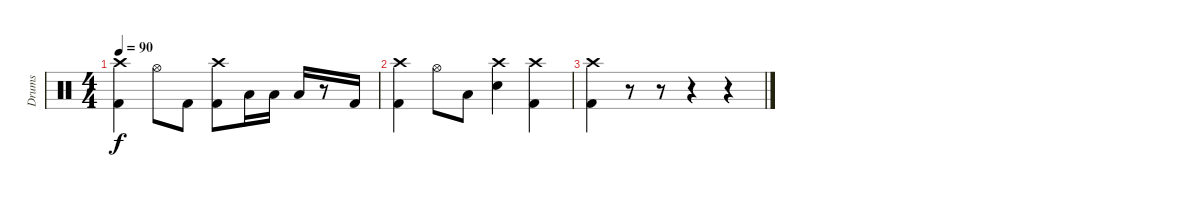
\track ("Drums" "Drums") {instrument percussion}
\staff {score}
\articulation defaults
\ts (4 4)
\tempo 90
\clef neutral
\ks c
("Crash high (hit)" "Kick (hit) 2").4{dy f} "Hi-Hat (open)".8 "Kick (hit) 2".8 ("Crash high (hit)" "Kick (hit) 2").8 "Low Tom (hit)".16 "Low Tom (hit)".16 "Low Tom (hit)".16 r.8 "Kick (hit) 2".16 |
("Crash high (hit)" "Kick (hit) 2").4 "Hi-Hat (open)".8 "Low Tom (hit)".8 ("Crash high (hit)" "Electric Snare (hit)").4 ("Crash high (hit)" "Kick (hit) 2").4 |
("Crash high (hit)" "Kick (hit) 2").4 r.8 r.8 r.4 r.4
